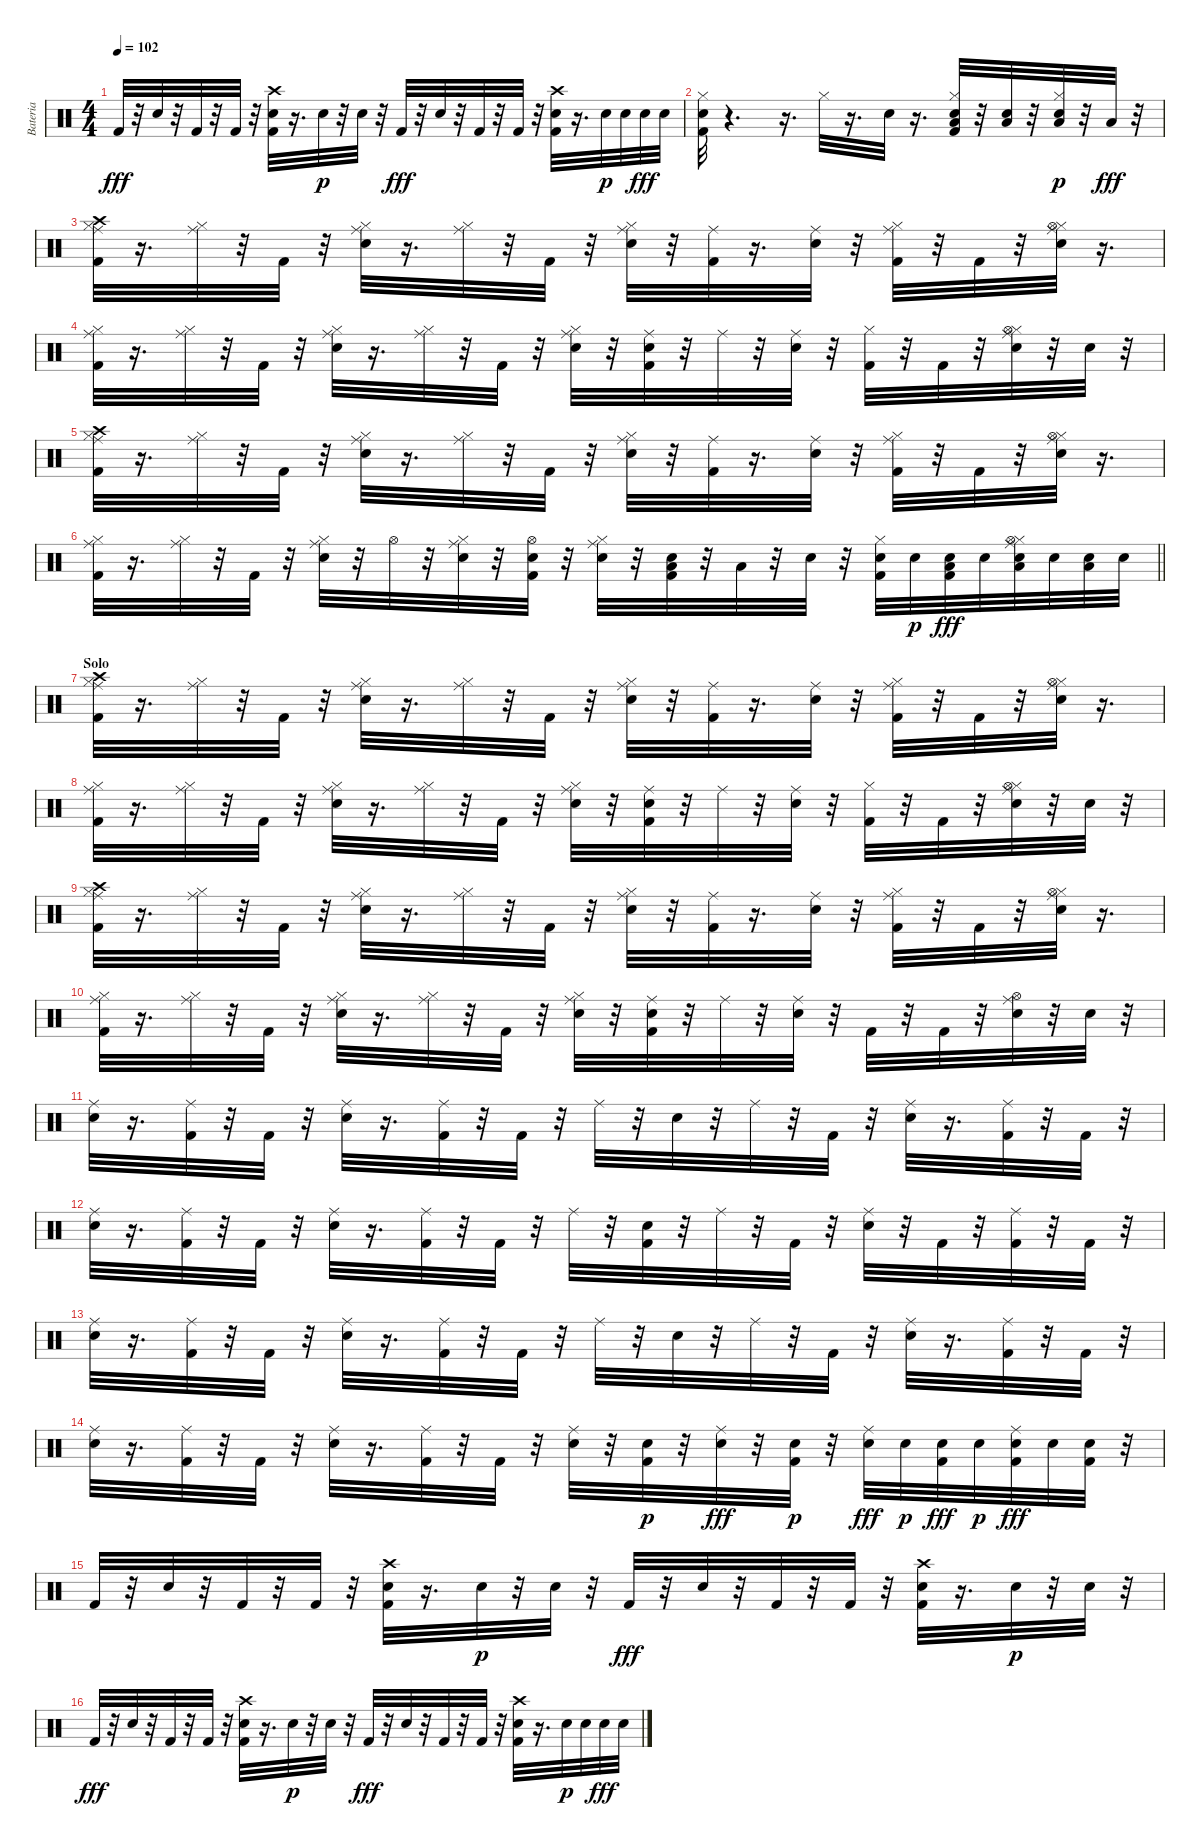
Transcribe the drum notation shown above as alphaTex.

\track ("Bateria" "Bateria") {instrument percussion}
\staff {score}
\articulation defaults
\ts (4 4)
\tempo 102
\clef neutral
\ks c "Kick (hit) 2".32{dy fff}
r.32 "Snare (hit) 2".32 r.32 "Kick (hit) 2".32 r.32 "Kick (hit) 2".32 r.32 ("Kick (hit) 2" "Snare (hit) 2" "Crash high (hit)").32 r.16{d} "Snare (hit) 2".32{dy p} r.32 "Snare (hit) 2".32 r.32 "Kick (hit) 2".32{dy fff} r.32 "Snare (hit) 2".32 r.32 "Kick (hit) 2".32 r.32 "Kick (hit) 2".32 r.32 ("Kick (hit) 2" "Snare (hit) 2" "Crash high (hit)").32 r.16{d} "Snare (hit) 2".32{dy p} "Snare (hit) 2".32 "Snare (hit) 2".32{dy fff} "Snare (hit) 2".32 |
("Kick (hit) 2" "Snare (hit) 2" "Hi-Hat (closed)").32 r.4{d} r.16{d} "Hi-Hat (closed)".32 r.16{d} "Snare (hit) 2".32 r.16{d} ("Kick (hit) 2" "Snare (hit) 2" "Hi-Hat (closed)" "Low Tom (hit)").32 r.32 ("Snare (hit) 2" "Low Tom (hit)").32 r.32 ("Snare (hit) 2" "Low Floor Tom (hit)" "Hi-Hat (closed)").32{dy p} r.32 "Low Floor Tom (hit)".32{dy fff} r.32 |
("Kick (hit) 2" "Hi-Hat (closed)" "Crash high (hit)" "Ride (middle)").32 r.16{d} ("Hi-Hat (closed)" "Ride (middle)").32 r.32 "Kick (hit) 2".32 r.32 ("Snare (hit) 2" "Hi-Hat (closed)" "Ride (middle)").32 r.16{d} ("Hi-Hat (closed)" "Ride (middle)").32 r.32 "Kick (hit) 2".32 r.32 ("Snare (hit) 2" "Hi-Hat (closed)" "Ride (middle)").32 r.32 ("Kick (hit) 2" "Ride (middle)").32 r.16{d} ("Snare (hit) 2" "Ride (middle)").32 r.32 ("Kick (hit) 2" "Hi-Hat (closed)" "Ride (middle)").32 r.32 "Kick (hit) 2".32 r.32 ("Snare (hit) 2" "Hi-Hat (closed)" "Hi-Hat (open)" "Ride (middle)").32 r.16{d} |
("Kick (hit) 2" "Hi-Hat (closed)" "Ride (middle)").32 r.16{d} ("Hi-Hat (closed)" "Ride (middle)").32 r.32 "Kick (hit) 2".32 r.32 ("Snare (hit) 2" "Hi-Hat (closed)" "Ride (middle)").32 r.16{d} ("Hi-Hat (closed)" "Ride (middle)").32 r.32 "Kick (hit) 2".32 r.32 ("Snare (hit) 2" "Hi-Hat (closed)" "Ride (middle)").32 r.32 ("Kick (hit) 2" "Snare (hit) 2" "Ride (middle)").32 r.32 "Ride (middle)".32 r.32 ("Snare (hit) 2" "Ride (middle)").32 r.32 ("Kick (hit) 2" "Hi-Hat (closed)").32 r.32 "Kick (hit) 2".32 r.32 ("Snare (hit) 2" "Hi-Hat (closed)" "Hi-Hat (open)" "Ride (middle)").32 r.32 "Snare (hit) 2".32 r.32 |
("Kick (hit) 2" "Hi-Hat (closed)" "Crash high (hit)" "Ride (middle)").32 r.16{d} ("Hi-Hat (closed)" "Ride (middle)").32 r.32 "Kick (hit) 2".32 r.32 ("Snare (hit) 2" "Hi-Hat (closed)" "Ride (middle)").32 r.16{d} ("Hi-Hat (closed)" "Ride (middle)").32 r.32 "Kick (hit) 2".32 r.32 ("Snare (hit) 2" "Hi-Hat (closed)" "Ride (middle)").32 r.32 ("Kick (hit) 2" "Ride (middle)").32 r.16{d} ("Snare (hit) 2" "Ride (middle)").32 r.32 ("Kick (hit) 2" "Hi-Hat (closed)" "Ride (middle)").32 r.32 "Kick (hit) 2".32 r.32 ("Snare (hit) 2" "Hi-Hat (closed)" "Hi-Hat (open)" "Ride (middle)").32 r.16{d} |
\barLineRight lightlight
("Kick (hit) 2" "Hi-Hat (closed)" "Ride (middle)").32 r.16{d} ("Hi-Hat (closed)" "Ride (middle)").32 r.32 "Kick (hit) 2".32 r.32 ("Snare (hit) 2" "Hi-Hat (closed)" "Ride (middle)").32 r.32 "Hi-Hat (open)".32 r.32 ("Snare (hit) 2" "Hi-Hat (closed)" "Ride (middle)").32 r.32 ("Kick (hit) 2" "Snare (hit) 2" "Hi-Hat (open)").32 r.32 ("Snare (hit) 2" "Hi-Hat (closed)" "Ride (middle)").32 r.32 ("Kick (hit) 2" "Snare (hit) 2" "Low Tom (hit)").32 r.32 "Low Floor Tom (hit)".32 r.32 "Snare (hit) 2".32 r.32 ("Kick (hit) 2" "Snare (hit) 2" "Hi-Hat (closed)").32 "Snare (hit) 2".32{dy p} ("Kick (hit) 2" "Snare (hit) 2" "Low Tom (hit)").32{dy fff} "Snare (hit) 2".32 ("Snare (hit) 2" "Low Floor Tom (hit)" "Hi-Hat (closed)" "Hi-Hat (open)" "Ride (middle)").32 "Snare (hit) 2".32 ("Snare (hit) 2" "Low Floor Tom (hit)").32 "Snare (hit) 2".32 |
\section ("" "Solo")
("Kick (hit) 2" "Hi-Hat (closed)" "Crash high (hit)" "Ride (middle)").32 r.16{d} ("Hi-Hat (closed)" "Ride (middle)").32 r.32 "Kick (hit) 2".32 r.32 ("Snare (hit) 2" "Hi-Hat (closed)" "Ride (middle)").32 r.16{d} ("Hi-Hat (closed)" "Ride (middle)").32 r.32 "Kick (hit) 2".32 r.32 ("Snare (hit) 2" "Hi-Hat (closed)" "Ride (middle)").32 r.32 ("Kick (hit) 2" "Ride (middle)").32 r.16{d} ("Snare (hit) 2" "Ride (middle)").32 r.32 ("Kick (hit) 2" "Hi-Hat (closed)" "Ride (middle)").32 r.32 "Kick (hit) 2".32 r.32 ("Snare (hit) 2" "Hi-Hat (closed)" "Hi-Hat (open)" "Ride (middle)").32 r.16{d} |
("Kick (hit) 2" "Hi-Hat (closed)" "Ride (middle)").32 r.16{d} ("Hi-Hat (closed)" "Ride (middle)").32 r.32 "Kick (hit) 2".32 r.32 ("Snare (hit) 2" "Hi-Hat (closed)" "Ride (middle)").32 r.16{d} ("Hi-Hat (closed)" "Ride (middle)").32 r.32 "Kick (hit) 2".32 r.32 ("Snare (hit) 2" "Hi-Hat (closed)" "Ride (middle)").32 r.32 ("Kick (hit) 2" "Snare (hit) 2" "Ride (middle)").32 r.32 "Ride (middle)".32 r.32 ("Snare (hit) 2" "Ride (middle)").32 r.32 ("Kick (hit) 2" "Hi-Hat (closed)").32 r.32 "Kick (hit) 2".32 r.32 ("Snare (hit) 2" "Hi-Hat (closed)" "Hi-Hat (open)" "Ride (middle)").32 r.32 "Snare (hit) 2".32 r.32 |
("Kick (hit) 2" "Hi-Hat (closed)" "Crash high (hit)" "Ride (middle)").32 r.16{d} ("Hi-Hat (closed)" "Ride (middle)").32 r.32 "Kick (hit) 2".32 r.32 ("Snare (hit) 2" "Hi-Hat (closed)" "Ride (middle)").32 r.16{d} ("Hi-Hat (closed)" "Ride (middle)").32 r.32 "Kick (hit) 2".32 r.32 ("Snare (hit) 2" "Hi-Hat (closed)" "Ride (middle)").32 r.32 ("Kick (hit) 2" "Ride (middle)").32 r.16{d} ("Snare (hit) 2" "Ride (middle)").32 r.32 ("Kick (hit) 2" "Hi-Hat (closed)" "Ride (middle)").32 r.32 "Kick (hit) 2".32 r.32 ("Snare (hit) 2" "Hi-Hat (closed)" "Hi-Hat (open)" "Ride (middle)").32 r.16{d} |
("Kick (hit) 2" "Hi-Hat (closed)" "Ride (middle)").32 r.16{d} ("Hi-Hat (closed)" "Ride (middle)").32 r.32 "Kick (hit) 2".32 r.32 ("Snare (hit) 2" "Hi-Hat (closed)" "Ride (middle)").32 r.16{d} ("Hi-Hat (closed)" "Ride (middle)").32 r.32 "Kick (hit) 2".32 r.32 ("Snare (hit) 2" "Hi-Hat (closed)" "Ride (middle)").32 r.32 ("Kick (hit) 2" "Snare (hit) 2" "Ride (middle)").32 r.32 "Ride (middle)".32 r.32 ("Snare (hit) 2" "Ride (middle)").32 r.32 "Kick (hit) 2".32 r.32 "Kick (hit) 2".32 r.32 ("Snare (hit) 2" "Hi-Hat (open)" "Ride (middle)").32 r.32 "Snare (hit) 2".32 r.32 |
("Snare (hit) 2" "Ride (middle)").32 r.16{d} ("Kick (hit) 2" "Ride (middle)").32 r.32 "Kick (hit) 2".32 r.32 ("Snare (hit) 2" "Ride (middle)").32 r.16{d} ("Kick (hit) 2" "Ride (middle)").32 r.32 "Kick (hit) 2".32 r.32 "Ride (middle)".32 r.32 "Snare (hit) 2".32 r.32 "Ride (middle)".32 r.32 "Kick (hit) 2".32 r.32 ("Snare (hit) 2" "Ride (middle)").32 r.16{d} ("Kick (hit) 2" "Ride (middle)").32 r.32 "Kick (hit) 2".32 r.32 |
("Snare (hit) 2" "Ride (middle)").32 r.16{d} ("Kick (hit) 2" "Ride (middle)").32 r.32 "Kick (hit) 2".32 r.32 ("Snare (hit) 2" "Ride (middle)").32 r.16{d} ("Kick (hit) 2" "Ride (middle)").32 r.32 "Kick (hit) 2".32 r.32 "Ride (middle)".32 r.32 ("Kick (hit) 2" "Snare (hit) 2").32 r.32 "Ride (middle)".32 r.32 "Kick (hit) 2".32 r.32 ("Snare (hit) 2" "Ride (middle)").32 r.32 "Kick (hit) 2".32 r.32 ("Kick (hit) 2" "Ride (middle)").32 r.32 "Kick (hit) 2".32 r.32 |
("Snare (hit) 2" "Ride (middle)").32 r.16{d} ("Kick (hit) 2" "Ride (middle)").32 r.32 "Kick (hit) 2".32 r.32 ("Snare (hit) 2" "Ride (middle)").32 r.16{d} ("Kick (hit) 2" "Ride (middle)").32 r.32 "Kick (hit) 2".32 r.32 "Ride (middle)".32 r.32 "Snare (hit) 2".32 r.32 "Ride (middle)".32 r.32 "Kick (hit) 2".32 r.32 ("Snare (hit) 2" "Ride (middle)").32 r.16{d} ("Kick (hit) 2" "Ride (middle)").32 r.32 "Kick (hit) 2".32 r.32 |
("Snare (hit) 2" "Ride (middle)").32 r.16{d} ("Kick (hit) 2" "Ride (middle)").32 r.32 "Kick (hit) 2".32 r.32 ("Snare (hit) 2" "Ride (middle)").32 r.16{d} ("Kick (hit) 2" "Ride (middle)").32 r.32 "Kick (hit) 2".32 r.32 ("Snare (hit) 2" "Ride (middle)").32 r.32 ("Kick (hit) 2" "Snare (hit) 2").32{dy p} r.32 ("Snare (hit) 2" "Ride (middle)").32{dy fff} r.32 ("Kick (hit) 2" "Snare (hit) 2").32{dy p} r.32 ("Snare (hit) 2" "Ride (middle)").32{dy fff} "Snare (hit) 2".32{dy p} ("Kick (hit) 2" "Snare (hit) 2").32{dy fff} "Snare (hit) 2".32{dy p} ("Kick (hit) 2" "Snare (hit) 2" "Ride (middle)").32{dy fff} "Snare (hit) 2".32 ("Kick (hit) 2" "Snare (hit) 2").32 r.32 |
"Kick (hit) 2".32 r.32 "Snare (hit) 2".32 r.32 "Kick (hit) 2".32 r.32 "Kick (hit) 2".32 r.32 ("Kick (hit) 2" "Snare (hit) 2" "Crash high (hit)").32 r.16{d} "Snare (hit) 2".32{dy p} r.32 "Snare (hit) 2".32 r.32 "Kick (hit) 2".32{dy fff} r.32 "Snare (hit) 2".32 r.32 "Kick (hit) 2".32 r.32 "Kick (hit) 2".32 r.32 ("Kick (hit) 2" "Snare (hit) 2" "Crash high (hit)").32 r.16{d} "Snare (hit) 2".32{dy p} r.32 "Snare (hit) 2".32 r.32 |
"Kick (hit) 2".32{dy fff} r.32 "Snare (hit) 2".32 r.32 "Kick (hit) 2".32 r.32 "Kick (hit) 2".32 r.32 ("Kick (hit) 2" "Snare (hit) 2" "Crash high (hit)").32 r.16{d} "Snare (hit) 2".32{dy p} r.32 "Snare (hit) 2".32 r.32 "Kick (hit) 2".32{dy fff} r.32 "Snare (hit) 2".32 r.32 "Kick (hit) 2".32 r.32 "Kick (hit) 2".32 r.32 ("Kick (hit) 2" "Snare (hit) 2" "Crash high (hit)").32 r.16{d} "Snare (hit) 2".32{dy p} "Snare (hit) 2".32 "Snare (hit) 2".32{dy fff} "Snare (hit) 2".32
